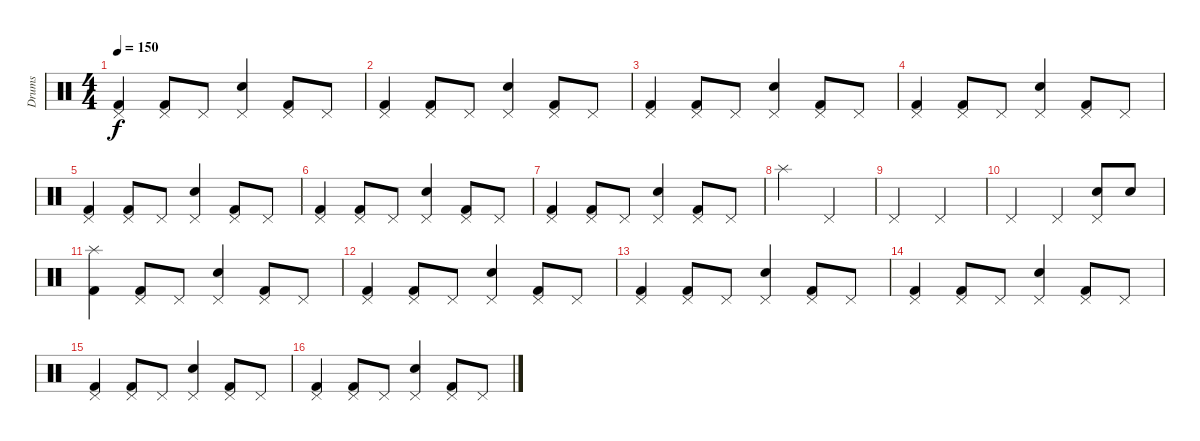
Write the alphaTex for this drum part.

\track ("Drums" "Drums") {instrument percussion}
\staff {score}
\articulation defaults
\ts (4 4)
\tempo 150
\clef neutral
\ks c
("Pedal Hi-Hat (hit)" "Kick (hit) 2").4{dy f} ("Pedal Hi-Hat (hit)" "Kick (hit) 2").8 "Pedal Hi-Hat (hit)".8 ("Pedal Hi-Hat (hit)" "Snare (hit) 2").4 ("Pedal Hi-Hat (hit)" "Kick (hit) 2").8 "Pedal Hi-Hat (hit)".8 |
("Pedal Hi-Hat (hit)" "Kick (hit) 2").4 ("Pedal Hi-Hat (hit)" "Kick (hit) 2").8 "Pedal Hi-Hat (hit)".8 ("Pedal Hi-Hat (hit)" "Snare (hit) 2").4 ("Pedal Hi-Hat (hit)" "Kick (hit) 2").8 "Pedal Hi-Hat (hit)".8 |
("Pedal Hi-Hat (hit)" "Kick (hit) 2").4 ("Pedal Hi-Hat (hit)" "Kick (hit) 2").8 "Pedal Hi-Hat (hit)".8 ("Pedal Hi-Hat (hit)" "Snare (hit) 2").4 ("Pedal Hi-Hat (hit)" "Kick (hit) 2").8 "Pedal Hi-Hat (hit)".8 |
("Pedal Hi-Hat (hit)" "Kick (hit) 2").4 ("Pedal Hi-Hat (hit)" "Kick (hit) 2").8 "Pedal Hi-Hat (hit)".8 ("Pedal Hi-Hat (hit)" "Snare (hit) 2").4 ("Pedal Hi-Hat (hit)" "Kick (hit) 2").8 "Pedal Hi-Hat (hit)".8 |
("Pedal Hi-Hat (hit)" "Kick (hit) 2").4 ("Pedal Hi-Hat (hit)" "Kick (hit) 2").8 "Pedal Hi-Hat (hit)".8 ("Pedal Hi-Hat (hit)" "Snare (hit) 2").4 ("Pedal Hi-Hat (hit)" "Kick (hit) 2").8 "Pedal Hi-Hat (hit)".8 |
("Pedal Hi-Hat (hit)" "Kick (hit) 2").4 ("Pedal Hi-Hat (hit)" "Kick (hit) 2").8 "Pedal Hi-Hat (hit)".8 ("Pedal Hi-Hat (hit)" "Snare (hit) 2").4 ("Pedal Hi-Hat (hit)" "Kick (hit) 2").8 "Pedal Hi-Hat (hit)".8 |
("Pedal Hi-Hat (hit)" "Kick (hit) 2").4 ("Pedal Hi-Hat (hit)" "Kick (hit) 2").8 "Pedal Hi-Hat (hit)".8 ("Pedal Hi-Hat (hit)" "Snare (hit) 2").4 ("Pedal Hi-Hat (hit)" "Kick (hit) 2").8 "Pedal Hi-Hat (hit)".8 |
"Splash (hit)".2 "Pedal Hi-Hat (hit)".2 |
"Pedal Hi-Hat (hit)".2 "Pedal Hi-Hat (hit)".2 |
"Pedal Hi-Hat (hit)".2 "Pedal Hi-Hat (hit)".4 ("Pedal Hi-Hat (hit)" "Electric Snare (hit)").8 "Electric Snare (hit)".8 |
("Splash (hit)" "Kick (hit) 2").4 ("Pedal Hi-Hat (hit)" "Kick (hit) 2").8 "Pedal Hi-Hat (hit)".8 ("Pedal Hi-Hat (hit)" "Snare (hit) 2").4 ("Pedal Hi-Hat (hit)" "Kick (hit) 2").8 "Pedal Hi-Hat (hit)".8 |
("Pedal Hi-Hat (hit)" "Kick (hit) 2").4 ("Pedal Hi-Hat (hit)" "Kick (hit) 2").8 "Pedal Hi-Hat (hit)".8 ("Pedal Hi-Hat (hit)" "Snare (hit) 2").4 ("Pedal Hi-Hat (hit)" "Kick (hit) 2").8 "Pedal Hi-Hat (hit)".8 |
("Pedal Hi-Hat (hit)" "Kick (hit) 2").4 ("Pedal Hi-Hat (hit)" "Kick (hit) 2").8 "Pedal Hi-Hat (hit)".8 ("Pedal Hi-Hat (hit)" "Snare (hit) 2").4 ("Pedal Hi-Hat (hit)" "Kick (hit) 2").8 "Pedal Hi-Hat (hit)".8 |
("Pedal Hi-Hat (hit)" "Kick (hit) 2").4 ("Pedal Hi-Hat (hit)" "Kick (hit) 2").8 "Pedal Hi-Hat (hit)".8 ("Pedal Hi-Hat (hit)" "Snare (hit) 2").4 ("Pedal Hi-Hat (hit)" "Kick (hit) 2").8 "Pedal Hi-Hat (hit)".8 |
("Pedal Hi-Hat (hit)" "Kick (hit) 2").4 ("Pedal Hi-Hat (hit)" "Kick (hit) 2").8 "Pedal Hi-Hat (hit)".8 ("Pedal Hi-Hat (hit)" "Snare (hit) 2").4 ("Pedal Hi-Hat (hit)" "Kick (hit) 2").8 "Pedal Hi-Hat (hit)".8 |
("Pedal Hi-Hat (hit)" "Kick (hit) 2").4 ("Pedal Hi-Hat (hit)" "Kick (hit) 2").8 "Pedal Hi-Hat (hit)".8 ("Pedal Hi-Hat (hit)" "Snare (hit) 2").4 ("Pedal Hi-Hat (hit)" "Kick (hit) 2").8 "Pedal Hi-Hat (hit)".8
